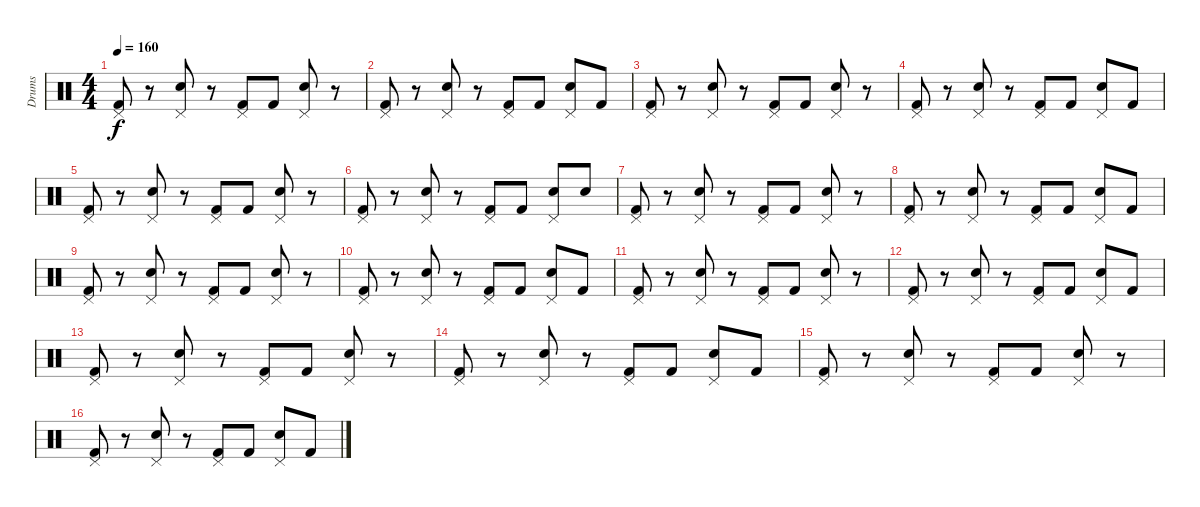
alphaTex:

\track ("Drums" "Drums") {instrument percussion}
\staff {score}
\articulation defaults
\ts (4 4)
\tempo 160
\clef neutral
\ks c
("Pedal Hi-Hat (hit)" "Kick (hit) 2").8{dy f} r.8 ("Pedal Hi-Hat (hit)" "Snare (hit) 2").8 r.8 ("Pedal Hi-Hat (hit)" "Kick (hit) 2").8 "Kick (hit) 2".8 ("Pedal Hi-Hat (hit)" "Snare (hit) 2").8 r.8 |
("Pedal Hi-Hat (hit)" "Kick (hit) 2").8 r.8 ("Pedal Hi-Hat (hit)" "Snare (hit) 2").8 r.8 ("Pedal Hi-Hat (hit)" "Kick (hit) 2").8 "Kick (hit) 2".8 ("Pedal Hi-Hat (hit)" "Snare (hit) 2").8 "Kick (hit) 2".8 |
("Pedal Hi-Hat (hit)" "Kick (hit) 2").8 r.8 ("Pedal Hi-Hat (hit)" "Snare (hit) 2").8 r.8 ("Pedal Hi-Hat (hit)" "Kick (hit) 2").8 "Kick (hit) 2".8 ("Pedal Hi-Hat (hit)" "Snare (hit) 2").8 r.8 |
("Pedal Hi-Hat (hit)" "Kick (hit) 2").8 r.8 ("Pedal Hi-Hat (hit)" "Snare (hit) 2").8 r.8 ("Pedal Hi-Hat (hit)" "Kick (hit) 2").8 "Kick (hit) 2".8 ("Pedal Hi-Hat (hit)" "Snare (hit) 2").8 "Kick (hit) 2".8 |
("Pedal Hi-Hat (hit)" "Kick (hit) 2").8 r.8 ("Pedal Hi-Hat (hit)" "Snare (hit) 2").8 r.8 ("Pedal Hi-Hat (hit)" "Kick (hit) 2").8 "Kick (hit) 2".8 ("Pedal Hi-Hat (hit)" "Snare (hit) 2").8 r.8 |
("Pedal Hi-Hat (hit)" "Kick (hit) 2").8 r.8 ("Pedal Hi-Hat (hit)" "Snare (hit) 2").8 r.8 ("Pedal Hi-Hat (hit)" "Kick (hit) 2").8 "Kick (hit) 2".8 ("Pedal Hi-Hat (hit)" "Snare (hit) 2").8 "Snare (hit) 2".8 |
("Pedal Hi-Hat (hit)" "Kick (hit) 2").8 r.8 ("Pedal Hi-Hat (hit)" "Snare (hit) 2").8 r.8 ("Pedal Hi-Hat (hit)" "Kick (hit) 2").8 "Kick (hit) 2".8 ("Pedal Hi-Hat (hit)" "Snare (hit) 2").8 r.8 |
("Pedal Hi-Hat (hit)" "Kick (hit) 2").8 r.8 ("Pedal Hi-Hat (hit)" "Snare (hit) 2").8 r.8 ("Pedal Hi-Hat (hit)" "Kick (hit) 2").8 "Kick (hit) 2".8 ("Pedal Hi-Hat (hit)" "Snare (hit) 2").8 "Kick (hit) 2".8 |
("Pedal Hi-Hat (hit)" "Kick (hit) 2").8 r.8 ("Pedal Hi-Hat (hit)" "Snare (hit) 2").8 r.8 ("Pedal Hi-Hat (hit)" "Kick (hit) 2").8 "Kick (hit) 2".8 ("Pedal Hi-Hat (hit)" "Snare (hit) 2").8 r.8 |
("Pedal Hi-Hat (hit)" "Kick (hit) 2").8 r.8 ("Pedal Hi-Hat (hit)" "Snare (hit) 2").8 r.8 ("Pedal Hi-Hat (hit)" "Kick (hit) 2").8 "Kick (hit) 2".8 ("Pedal Hi-Hat (hit)" "Snare (hit) 2").8 "Kick (hit) 2".8 |
("Pedal Hi-Hat (hit)" "Kick (hit) 2").8 r.8 ("Pedal Hi-Hat (hit)" "Snare (hit) 2").8 r.8 ("Pedal Hi-Hat (hit)" "Kick (hit) 2").8 "Kick (hit) 2".8 ("Pedal Hi-Hat (hit)" "Snare (hit) 2").8 r.8 |
("Pedal Hi-Hat (hit)" "Kick (hit) 2").8 r.8 ("Pedal Hi-Hat (hit)" "Snare (hit) 2").8 r.8 ("Pedal Hi-Hat (hit)" "Kick (hit) 2").8 "Kick (hit) 2".8 ("Pedal Hi-Hat (hit)" "Snare (hit) 2").8 "Kick (hit) 2".8 |
("Pedal Hi-Hat (hit)" "Kick (hit) 2").8 r.8 ("Pedal Hi-Hat (hit)" "Snare (hit) 2").8 r.8 ("Pedal Hi-Hat (hit)" "Kick (hit) 2").8 "Kick (hit) 2".8 ("Pedal Hi-Hat (hit)" "Snare (hit) 2").8 r.8 |
("Pedal Hi-Hat (hit)" "Kick (hit) 2").8 r.8 ("Pedal Hi-Hat (hit)" "Snare (hit) 2").8 r.8 ("Pedal Hi-Hat (hit)" "Kick (hit) 2").8 "Kick (hit) 2".8 ("Pedal Hi-Hat (hit)" "Snare (hit) 2").8 "Kick (hit) 2".8 |
("Pedal Hi-Hat (hit)" "Kick (hit) 2").8 r.8 ("Pedal Hi-Hat (hit)" "Snare (hit) 2").8 r.8 ("Pedal Hi-Hat (hit)" "Kick (hit) 2").8 "Kick (hit) 2".8 ("Pedal Hi-Hat (hit)" "Snare (hit) 2").8 r.8 |
("Pedal Hi-Hat (hit)" "Kick (hit) 2").8 r.8 ("Pedal Hi-Hat (hit)" "Snare (hit) 2").8 r.8 ("Pedal Hi-Hat (hit)" "Kick (hit) 2").8 "Kick (hit) 2".8 ("Pedal Hi-Hat (hit)" "Snare (hit) 2").8 "Kick (hit) 2".8
